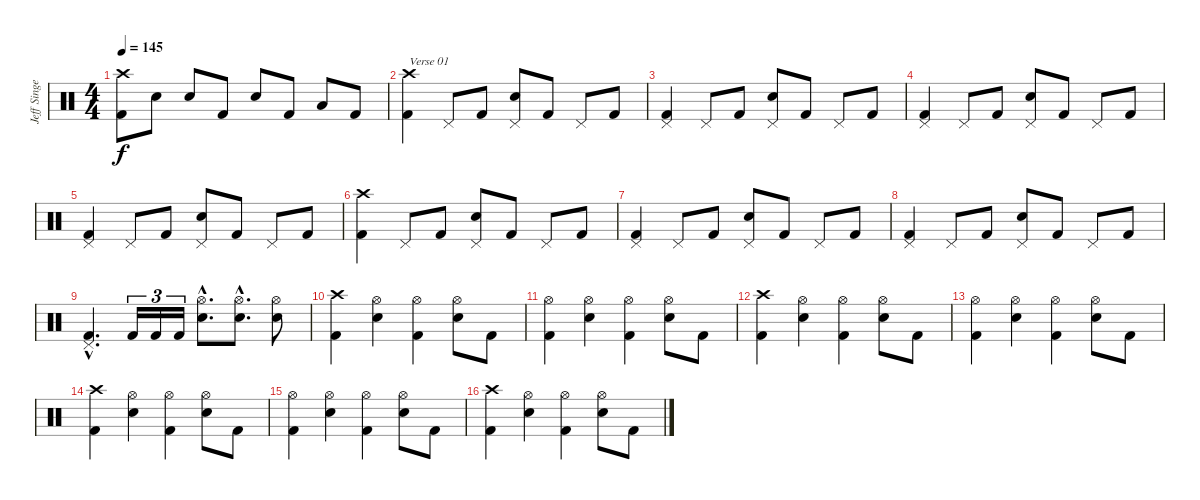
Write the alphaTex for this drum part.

\track ("Jeff Singer" "Jeff Singe") {instrument percussion}
\staff {score}
\articulation defaults
\ts (4 4)
\tempo 145
\clef neutral
\ks c
("Crash high (hit)" "Kick (hit) 2").8{dy f} "Electric Snare (hit)".8 "Electric Snare (hit)".8 "Kick (hit) 2".8 "Electric Snare (hit)".8 "Kick (hit) 2".8 "Low Tom (hit)".8 "Kick (hit) 2".8 |
("Crash high (hit)" "Kick (hit) 2").4{txt "Verse 01"} "Pedal Hi-Hat (hit)".8 "Kick (hit) 2".8 ("Pedal Hi-Hat (hit)" "Electric Snare (hit)").8 "Kick (hit) 2".8 "Pedal Hi-Hat (hit)".8 "Kick (hit) 2".8 |
("Pedal Hi-Hat (hit)" "Kick (hit) 2").4 "Pedal Hi-Hat (hit)".8 "Kick (hit) 2".8 ("Pedal Hi-Hat (hit)" "Electric Snare (hit)").8 "Kick (hit) 2".8 "Pedal Hi-Hat (hit)".8 "Kick (hit) 2".8 |
("Pedal Hi-Hat (hit)" "Kick (hit) 2").4 "Pedal Hi-Hat (hit)".8 "Kick (hit) 2".8 ("Pedal Hi-Hat (hit)" "Electric Snare (hit)").8 "Kick (hit) 2".8 "Pedal Hi-Hat (hit)".8 "Kick (hit) 2".8 |
("Pedal Hi-Hat (hit)" "Kick (hit) 2").4 "Pedal Hi-Hat (hit)".8 "Kick (hit) 2".8 ("Pedal Hi-Hat (hit)" "Electric Snare (hit)").8 "Kick (hit) 2".8 "Pedal Hi-Hat (hit)".8 "Kick (hit) 2".8 |
("Crash high (hit)" "Kick (hit) 2").4 "Pedal Hi-Hat (hit)".8 "Kick (hit) 2".8 ("Pedal Hi-Hat (hit)" "Electric Snare (hit)").8 "Kick (hit) 2".8 "Pedal Hi-Hat (hit)".8 "Kick (hit) 2".8 |
("Pedal Hi-Hat (hit)" "Kick (hit) 2").4 "Pedal Hi-Hat (hit)".8 "Kick (hit) 2".8 ("Pedal Hi-Hat (hit)" "Electric Snare (hit)").8 "Kick (hit) 2".8 "Pedal Hi-Hat (hit)".8 "Kick (hit) 2".8 |
("Pedal Hi-Hat (hit)" "Kick (hit) 2").4 "Pedal Hi-Hat (hit)".8 "Kick (hit) 2".8 ("Pedal Hi-Hat (hit)" "Electric Snare (hit)").8 "Kick (hit) 2".8 "Pedal Hi-Hat (hit)".8 "Kick (hit) 2".8 |
("Pedal Hi-Hat (hit)"{hac} "Kick (hit) 2"{hac}).4{d} "Kick (hit) 2".16{tu (3 2)} "Kick (hit) 2".16{tu (3 2)} "Kick (hit) 2".16{tu (3 2)} ("Hi-Hat (open)"{hac} "Electric Snare (hit)"{hac}).8{d} ("Hi-Hat (open)"{hac} "Electric Snare (hit)"{hac}).8{d} ("Hi-Hat (open)" "Electric Snare (hit)").8 |
("Crash high (hit)" "Kick (hit) 2").4 ("Hi-Hat (open)" "Electric Snare (hit)").4 ("Hi-Hat (open)" "Kick (hit) 2").4 ("Hi-Hat (open)" "Electric Snare (hit)").8 "Kick (hit) 2".8 |
("Hi-Hat (open)" "Kick (hit) 2").4 ("Hi-Hat (open)" "Electric Snare (hit)").4 ("Hi-Hat (open)" "Kick (hit) 2").4 ("Hi-Hat (open)" "Electric Snare (hit)").8 "Kick (hit) 2".8 |
("Crash high (hit)" "Kick (hit) 2").4 ("Hi-Hat (open)" "Electric Snare (hit)").4 ("Hi-Hat (open)" "Kick (hit) 2").4 ("Hi-Hat (open)" "Electric Snare (hit)").8 "Kick (hit) 2".8 |
("Hi-Hat (open)" "Kick (hit) 2").4 ("Hi-Hat (open)" "Electric Snare (hit)").4 ("Hi-Hat (open)" "Kick (hit) 2").4 ("Hi-Hat (open)" "Electric Snare (hit)").8 "Kick (hit) 2".8 |
("Crash high (hit)" "Kick (hit) 2").4 ("Hi-Hat (open)" "Electric Snare (hit)").4 ("Hi-Hat (open)" "Kick (hit) 2").4 ("Hi-Hat (open)" "Electric Snare (hit)").8 "Kick (hit) 2".8 |
("Hi-Hat (open)" "Kick (hit) 2").4 ("Hi-Hat (open)" "Electric Snare (hit)").4 ("Hi-Hat (open)" "Kick (hit) 2").4 ("Hi-Hat (open)" "Electric Snare (hit)").8 "Kick (hit) 2".8 |
("Crash high (hit)" "Kick (hit) 2").4 ("Hi-Hat (open)" "Electric Snare (hit)").4 ("Hi-Hat (open)" "Kick (hit) 2").4 ("Hi-Hat (open)" "Electric Snare (hit)").8 "Kick (hit) 2".8
